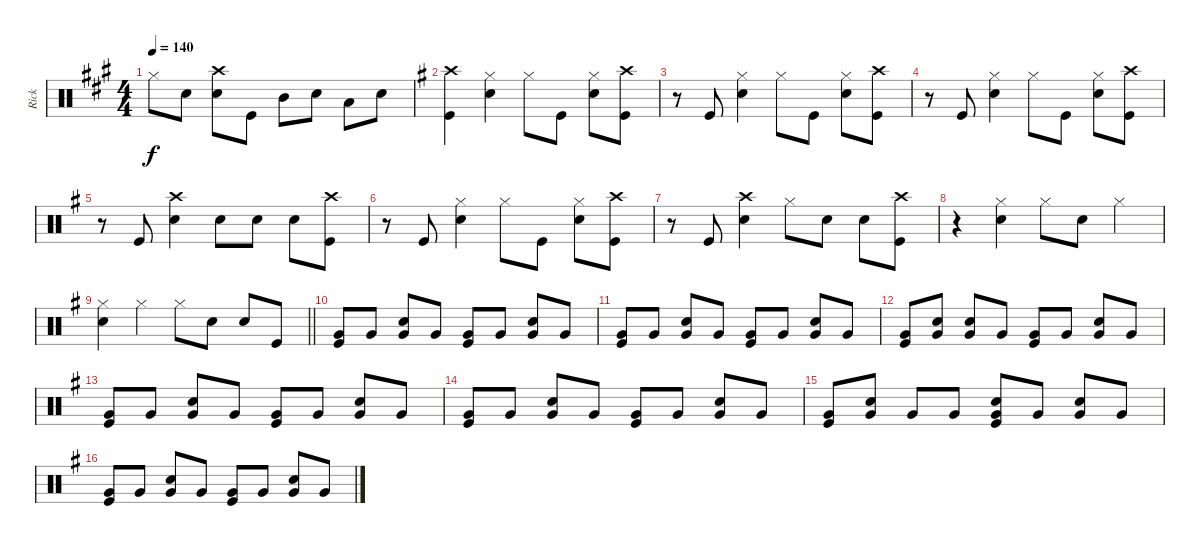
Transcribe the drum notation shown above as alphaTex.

\track ("Rick" "Rick") {instrument percussion}
\staff {score}
\articulation defaults
\ts (4 4)
\tempo 140
\clef neutral
\ks a "Hi-Hat (closed)".8{dy f} "Snare (hit) 2".8
("Crash high (hit)" "Snare (hit) 2").8 "Kick (hit)".8 "Mid Tom (hit)".8 "Snare (hit) 2".8 "Low Tom (hit)".8 "Snare (hit) 2".8 |
\ks g
("Crash high (hit)" "Kick (hit)").4 ("Hi-Hat (closed)" "Snare (hit) 2").4 "Hi-Hat (closed)".8 "Kick (hit)".8 ("Hi-Hat (closed)" "Snare (hit) 2").8 ("Crash high (hit)" "Kick (hit)").8 |
r.8 "Kick (hit)".8 ("Hi-Hat (closed)" "Snare (hit) 2").4 "Hi-Hat (closed)".8 "Kick (hit)".8 ("Hi-Hat (closed)" "Snare (hit) 2").8 ("Crash high (hit)" "Kick (hit)").8 |
r.8 "Kick (hit)".8 ("Hi-Hat (closed)" "Snare (hit) 2").4 "Hi-Hat (closed)".8 "Kick (hit)".8 ("Hi-Hat (closed)" "Snare (hit) 2").8 ("Crash high (hit)" "Kick (hit)").8 |
r.8 "Kick (hit)".8 ("Crash high (hit)" "Snare (hit) 2").4 "Snare (hit) 2".8 "Snare (hit) 2".8 "Snare (hit) 2".8 ("Crash high (hit)" "Kick (hit)").8 |
r.8 "Kick (hit)".8 ("Hi-Hat (closed)" "Snare (hit) 2").4 "Hi-Hat (closed)".8 "Kick (hit)".8 ("Hi-Hat (closed)" "Snare (hit) 2").8 ("Crash high (hit)" "Kick (hit)").8 |
r.8 "Kick (hit)".8 ("Crash high (hit)" "Snare (hit) 2").4 "Hi-Hat (closed)".8 "Snare (hit) 2".8 "Snare (hit) 2".8 ("Crash high (hit)" "Kick (hit)").8 |
r.4 ("Hi-Hat (closed)" "Snare (hit) 2").4 "Hi-Hat (closed)".8 "Snare (hit) 2".8 "Hi-Hat (closed)".4 |
\barLineRight lightlight
("Hi-Hat (closed)" "Snare (hit) 2").4 "Hi-Hat (closed)".4 "Hi-Hat (closed)".8 "Snare (hit) 2".8 "Snare (hit) 2".8 "Kick (hit)".8 |
("Very Low Tom (hit)" "Kick (hit)").8 "Very Low Tom (hit)".8 ("Snare (hit) 2" "Very Low Tom (hit)").8 "Very Low Tom (hit)".8 ("Very Low Tom (hit)" "Kick (hit)").8 "Very Low Tom (hit)".8 ("Snare (hit) 2" "Very Low Tom (hit)").8 "Very Low Tom (hit)".8 |
("Very Low Tom (hit)" "Kick (hit)").8 "Very Low Tom (hit)".8 ("Snare (hit) 2" "Very Low Tom (hit)").8 "Very Low Tom (hit)".8 ("Very Low Tom (hit)" "Kick (hit)").8 "Very Low Tom (hit)".8 ("Snare (hit) 2" "Very Low Tom (hit)").8 "Very Low Tom (hit)".8 |
("Very Low Tom (hit)" "Kick (hit)").8 ("Very Low Tom (hit)" "Snare (hit) 2").8 ("Very Low Tom (hit)" "Snare (hit) 2").8 "Very Low Tom (hit)".8 ("Very Low Tom (hit)" "Kick (hit)").8 "Very Low Tom (hit)".8 ("Snare (hit) 2" "Very Low Tom (hit)").8 "Very Low Tom (hit)".8 |
("Very Low Tom (hit)" "Kick (hit)").8 "Very Low Tom (hit)".8 ("Snare (hit) 2" "Very Low Tom (hit)").8 "Very Low Tom (hit)".8 ("Very Low Tom (hit)" "Kick (hit)").8 "Very Low Tom (hit)".8 ("Very Low Tom (hit)" "Snare (hit) 2").8 "Very Low Tom (hit)".8 |
("Very Low Tom (hit)" "Kick (hit)").8 "Very Low Tom (hit)".8 ("Snare (hit) 2" "Very Low Tom (hit)").8 "Very Low Tom (hit)".8 ("Very Low Tom (hit)" "Kick (hit)").8 "Very Low Tom (hit)".8 ("Very Low Tom (hit)" "Snare (hit) 2").8 "Very Low Tom (hit)".8 |
("Very Low Tom (hit)" "Kick (hit)").8 ("Snare (hit) 2" "Very Low Tom (hit)").8 "Very Low Tom (hit)".8 "Very Low Tom (hit)".8 ("Snare (hit) 2" "Very Low Tom (hit)" "Kick (hit)").8 "Very Low Tom (hit)".8 ("Snare (hit) 2" "Very Low Tom (hit)").8 "Very Low Tom (hit)".8 |
("Very Low Tom (hit)" "Kick (hit)").8 "Very Low Tom (hit)".8 ("Snare (hit) 2" "Very Low Tom (hit)").8 "Very Low Tom (hit)".8 ("Very Low Tom (hit)" "Kick (hit)").8 "Very Low Tom (hit)".8 ("Snare (hit) 2" "Very Low Tom (hit)").8 "Very Low Tom (hit)".8
